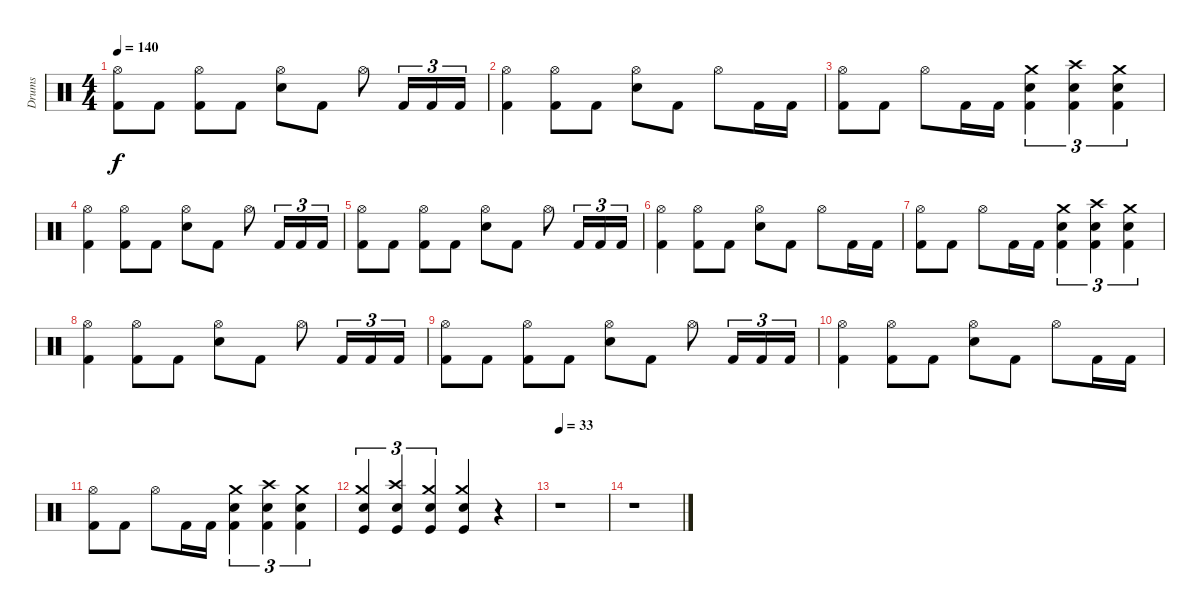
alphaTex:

\track ("Drums" "Drums") {instrument percussion}
\staff {score}
\articulation defaults
\ts (4 4)
\tempo 140
\clef neutral
\ks c
("Kick (hit) 2" "Hi-Hat (open)").8{dy f} "Kick (hit) 2".8 ("Kick (hit) 2" "Hi-Hat (open)").8 "Kick (hit) 2".8 ("Electric Snare (hit)" "Hi-Hat (open)").8 "Kick (hit) 2".8 "Hi-Hat (open)".8 "Kick (hit) 2".16{tu (3 2)} "Kick (hit) 2".16{tu (3 2)} "Kick (hit) 2".16{tu (3 2)} |
("Hi-Hat (open)" "Kick (hit) 2").4 ("Kick (hit) 2" "Hi-Hat (open)").8 "Kick (hit) 2".8 ("Hi-Hat (open)" "Electric Snare (hit)").8 "Kick (hit) 2".8 "Hi-Hat (open)".8 "Kick (hit) 2".16 "Kick (hit) 2".16 |
("Hi-Hat (open)" "Kick (hit) 2").8 "Kick (hit) 2".8 "Hi-Hat (open)".8 "Kick (hit) 2".16 "Kick (hit) 2".16 ("Electric Snare (hit)" "Kick (hit) 2" "Crash medium (hit)").4{tu (3 2)} ("Electric Snare (hit)" "Kick (hit) 2" "Crash high (hit)").4{tu (3 2)} ("Electric Snare (hit)" "Kick (hit) 2" "Crash medium (hit)").4{tu (3 2)} |
("Hi-Hat (open)" "Kick (hit) 2").4 ("Hi-Hat (open)" "Kick (hit) 2").8 "Kick (hit) 2".8 ("Hi-Hat (open)" "Electric Snare (hit)").8 "Kick (hit) 2".8 "Hi-Hat (open)".8 "Kick (hit) 2".16{tu (3 2)} "Kick (hit) 2".16{tu (3 2)} "Kick (hit) 2".16{tu (3 2)} |
("Kick (hit) 2" "Hi-Hat (open)").8 "Kick (hit) 2".8 ("Kick (hit) 2" "Hi-Hat (open)").8 "Kick (hit) 2".8 ("Electric Snare (hit)" "Hi-Hat (open)").8 "Kick (hit) 2".8 "Hi-Hat (open)".8 "Kick (hit) 2".16{tu (3 2)} "Kick (hit) 2".16{tu (3 2)} "Kick (hit) 2".16{tu (3 2)} |
("Hi-Hat (open)" "Kick (hit) 2").4 ("Kick (hit) 2" "Hi-Hat (open)").8 "Kick (hit) 2".8 ("Hi-Hat (open)" "Electric Snare (hit)").8 "Kick (hit) 2".8 "Hi-Hat (open)".8 "Kick (hit) 2".16 "Kick (hit) 2".16 |
("Hi-Hat (open)" "Kick (hit) 2").8 "Kick (hit) 2".8 "Hi-Hat (open)".8 "Kick (hit) 2".16 "Kick (hit) 2".16 ("Electric Snare (hit)" "Kick (hit) 2" "Crash medium (hit)").4{tu (3 2)} ("Electric Snare (hit)" "Kick (hit) 2" "Crash high (hit)").4{tu (3 2)} ("Electric Snare (hit)" "Kick (hit) 2" "Crash medium (hit)").4{tu (3 2)} |
("Hi-Hat (open)" "Kick (hit) 2").4 ("Hi-Hat (open)" "Kick (hit) 2").8 "Kick (hit) 2".8 ("Hi-Hat (open)" "Electric Snare (hit)").8 "Kick (hit) 2".8 "Hi-Hat (open)".8 "Kick (hit) 2".16{tu (3 2)} "Kick (hit) 2".16{tu (3 2)} "Kick (hit) 2".16{tu (3 2)} |
("Kick (hit) 2" "Hi-Hat (open)").8 "Kick (hit) 2".8 ("Kick (hit) 2" "Hi-Hat (open)").8 "Kick (hit) 2".8 ("Electric Snare (hit)" "Hi-Hat (open)").8 "Kick (hit) 2".8 "Hi-Hat (open)".8 "Kick (hit) 2".16{tu (3 2)} "Kick (hit) 2".16{tu (3 2)} "Kick (hit) 2".16{tu (3 2)} |
("Hi-Hat (open)" "Kick (hit) 2").4 ("Kick (hit) 2" "Hi-Hat (open)").8 "Kick (hit) 2".8 ("Hi-Hat (open)" "Electric Snare (hit)").8 "Kick (hit) 2".8 "Hi-Hat (open)".8 "Kick (hit) 2".16 "Kick (hit) 2".16 |
("Hi-Hat (open)" "Kick (hit) 2").8 "Kick (hit) 2".8 "Hi-Hat (open)".8 "Kick (hit) 2".16 "Kick (hit) 2".16 ("Electric Snare (hit)" "Kick (hit) 2" "Crash medium (hit)").4{tu (3 2)} ("Electric Snare (hit)" "Kick (hit) 2" "Crash high (hit)").4{tu (3 2)} ("Electric Snare (hit)" "Kick (hit) 2" "Crash medium (hit)").4{tu (3 2)} |
("Kick (hit)" "Electric Snare (hit)" "Crash medium (hit)").4{tu (3 2)} ("Kick (hit)" "Electric Snare (hit)" "Crash high (hit)").4{tu (3 2)} ("Kick (hit)" "Electric Snare (hit)" "Crash medium (hit)").4{tu (3 2)} ("Crash medium (hit)" "Electric Snare (hit)" "Kick (hit)").4 r.4 |
\tempo 33
r.1 |
r.1
